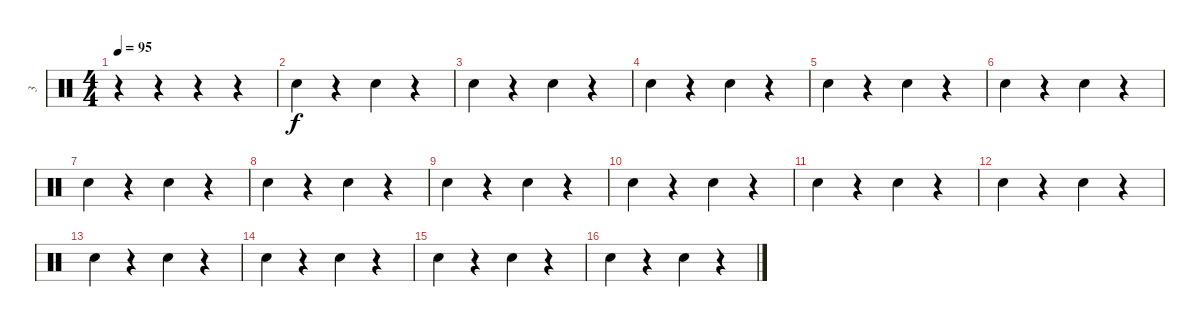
\track ("3" "3") {instrument percussion}
\staff {score}
\articulation defaults
\ts (4 4)
\tempo 95
\clef neutral
\ks c
r.4{dy f} r.4 r.4 r.4 |
"Hand Clap (hit)".4 r.4 "Hand Clap (hit)".4 r.4 |
"Hand Clap (hit)".4 r.4 "Hand Clap (hit)".4 r.4 |
"Hand Clap (hit)".4 r.4 "Hand Clap (hit)".4 r.4 |
"Hand Clap (hit)".4 r.4 "Hand Clap (hit)".4 r.4 |
"Hand Clap (hit)".4 r.4 "Hand Clap (hit)".4 r.4 |
"Hand Clap (hit)".4 r.4 "Hand Clap (hit)".4 r.4 |
"Hand Clap (hit)".4 r.4 "Hand Clap (hit)".4 r.4 |
"Hand Clap (hit)".4 r.4 "Hand Clap (hit)".4 r.4 |
"Hand Clap (hit)".4 r.4 "Hand Clap (hit)".4 r.4 |
"Hand Clap (hit)".4 r.4 "Hand Clap (hit)".4 r.4 |
"Hand Clap (hit)".4 r.4 "Hand Clap (hit)".4 r.4 |
"Hand Clap (hit)".4 r.4 "Hand Clap (hit)".4 r.4 |
"Hand Clap (hit)".4 r.4 "Hand Clap (hit)".4 r.4 |
"Hand Clap (hit)".4 r.4 "Hand Clap (hit)".4 r.4 |
"Hand Clap (hit)".4 r.4 "Hand Clap (hit)".4 r.4
